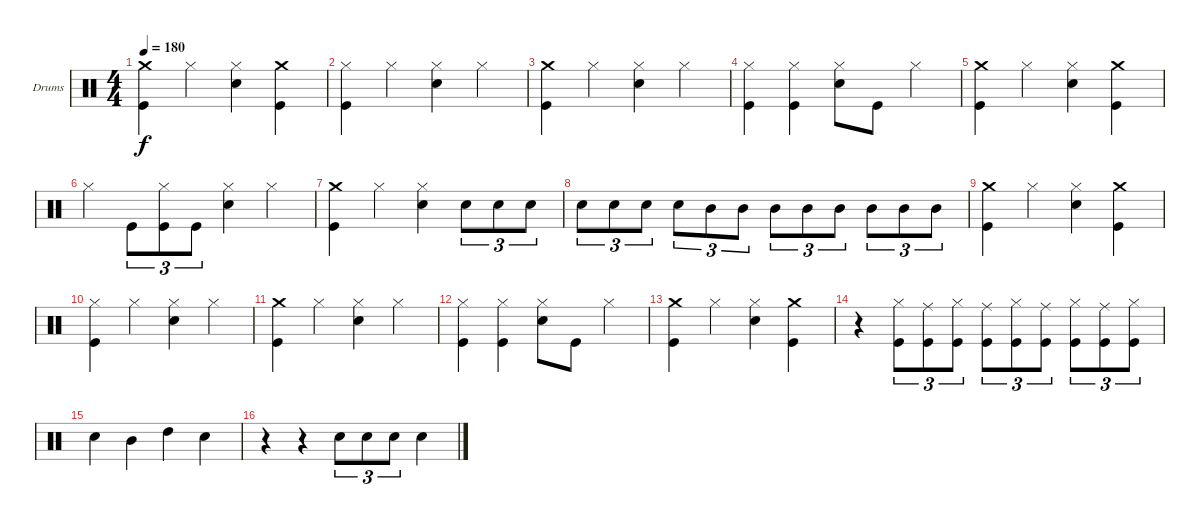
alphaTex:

\bracketExtendMode groupsimilarinstruments
\firstSystemTrackNameOrientation horizontal
\otherSystemsTrackNameOrientation horizontal
\track ("Drumkit" "Drums") {instrument percussion}
\staff {score}
\articulation defaults
\ts (4 4)
\tempo 180
\clef neutral
\ks c
("Crash medium (hit)" "Kick (hit)").4{dy f} "Hi-Hat (closed)".4 ("Hi-Hat (closed)" "Snare (hit) 2").4 ("Crash medium (hit)" "Kick (hit)").4 |
("Hi-Hat (closed)" "Kick (hit)").4 "Hi-Hat (closed)".4 ("Hi-Hat (closed)" "Snare (hit) 2").4 "Hi-Hat (closed)".4 |
("Crash medium (hit)" "Kick (hit)").4 "Hi-Hat (closed)".4 ("Hi-Hat (closed)" "Snare (hit) 2").4 "Hi-Hat (closed)".4 |
("Hi-Hat (closed)" "Kick (hit)").4 ("Hi-Hat (closed)" "Kick (hit)").4 ("Hi-Hat (closed)" "Snare (hit) 2").8 "Kick (hit)".8 "Hi-Hat (closed)".4 |
("Crash medium (hit)" "Kick (hit)").4 "Hi-Hat (closed)".4 ("Hi-Hat (closed)" "Snare (hit) 2").4 ("Crash medium (hit)" "Kick (hit)").4 |
"Hi-Hat (closed)".4 "Kick (hit)".8{tu (3 2)} ("Hi-Hat (closed)" "Kick (hit)").8{tu (3 2)} "Kick (hit)".8{tu (3 2)} ("Hi-Hat (closed)" "Snare (hit) 2").4 "Hi-Hat (closed)".4 |
("Crash medium (hit)" "Kick (hit)").4 "Hi-Hat (closed)".4 ("Hi-Hat (closed)" "Snare (hit) 2").4 "Snare (hit) 2".8{tu (3 2)} "Snare (hit) 2".8{tu (3 2)} "Snare (hit) 2".8{tu (3 2)} |
"Snare (hit) 2".8{tu (3 2)} "Snare (hit) 2".8{tu (3 2)} "Snare (hit) 2".8{tu (3 2)} "Snare (hit) 2".8{tu (3 2)} "Mid Tom (hit)".8{tu (3 2)} "Mid Tom (hit)".8{tu (3 2)} "Mid Tom (hit)".8{tu (3 2)} "Mid Tom (hit)".8{tu (3 2)} "Mid Tom (hit)".8{tu (3 2)} "Mid Tom (hit)".8{tu (3 2)} "Mid Tom (hit)".8{tu (3 2)} "Mid Tom (hit)".8{tu (3 2)} |
("Crash medium (hit)" "Kick (hit)").4 "Hi-Hat (closed)".4 ("Hi-Hat (closed)" "Snare (hit) 2").4 ("Crash medium (hit)" "Kick (hit)").4 |
("Hi-Hat (closed)" "Kick (hit)").4 "Hi-Hat (closed)".4 ("Hi-Hat (closed)" "Snare (hit) 2").4 "Hi-Hat (closed)".4 |
("Crash medium (hit)" "Kick (hit)").4 "Hi-Hat (closed)".4 ("Hi-Hat (closed)" "Snare (hit) 2").4 "Hi-Hat (closed)".4 |
("Hi-Hat (closed)" "Kick (hit)").4 ("Hi-Hat (closed)" "Kick (hit)").4 ("Hi-Hat (closed)" "Snare (hit) 2").8 "Kick (hit)".8 "Hi-Hat (closed)".4 |
("Crash medium (hit)" "Kick (hit)").4 "Hi-Hat (closed)".4 ("Hi-Hat (closed)" "Snare (hit) 2").4 ("Crash medium (hit)" "Kick (hit)").4 |
r.4 ("Hi-Hat (closed)" "Kick (hit)").8{tu (3 2)} ("Ride (middle)" "Kick (hit)").8{tu (3 2)} ("Hi-Hat (closed)" "Kick (hit)").8{tu (3 2)} ("Ride (middle)" "Kick (hit)").8{tu (3 2)} ("Hi-Hat (closed)" "Kick (hit)").8{tu (3 2)} ("Ride (middle)" "Kick (hit)").8{tu (3 2)} ("Hi-Hat (closed)" "Kick (hit)").8{tu (3 2)} ("Ride (middle)" "Kick (hit)").8{tu (3 2)} ("Hi-Hat (closed)" "Kick (hit)").8{tu (3 2)} |
"Snare (hit) 2".4 "Mid Tom (hit)".4 "High Tom (hit)".4 "Snare (hit) 2".4 |
r.4 r.4 "Snare (hit) 2".8{tu (3 2)} "Snare (hit) 2".8{tu (3 2)} "Snare (hit) 2".8{tu (3 2)} "Snare (hit) 2".4
